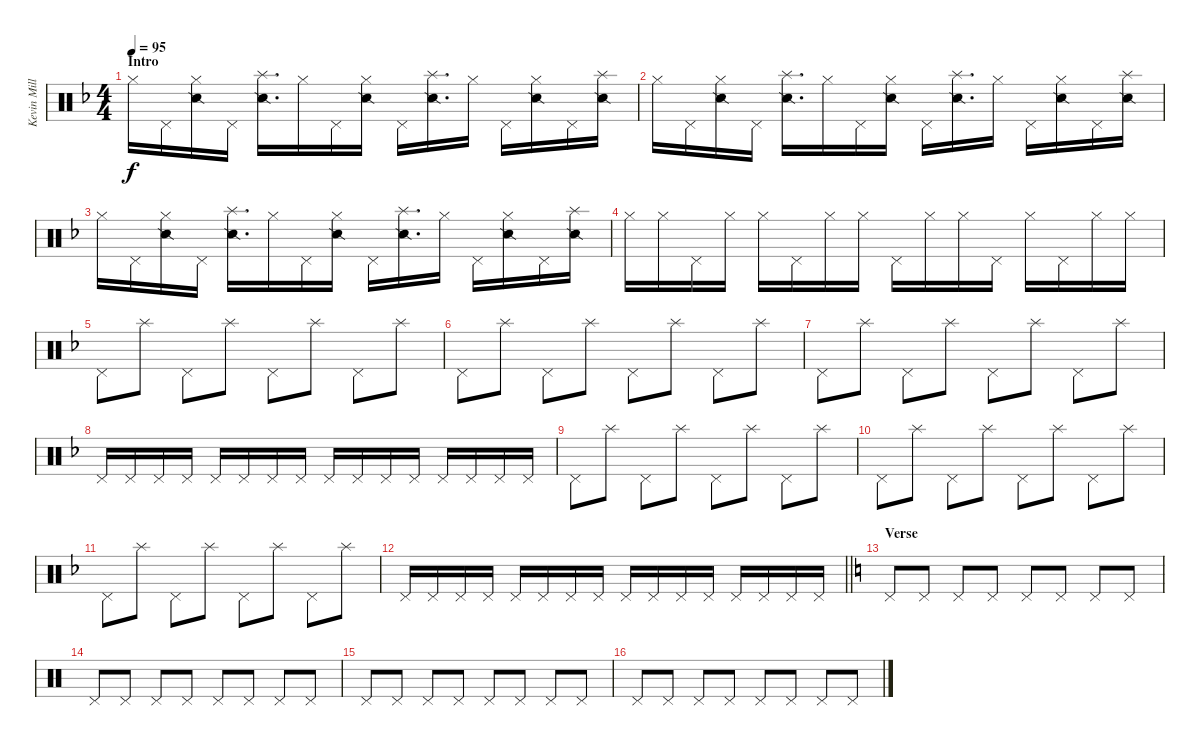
\track ("Kevin Miller (Drums)" "Kevin Mill") {instrument percussion}
\staff {score}
\articulation defaults
\ts (4 4)
\section ("" "Intro")
\tempo 95
\clef neutral
\ks f "Hi-Hat (closed)".16{dy f} "Pedal Hi-Hat (hit)".16
("Hi-Hat (closed)" "Snare (side stick) 2").16 "Pedal Hi-Hat (hit)".16 ("Splash (hit)" "Snare (side stick) 2").16{d} "Hi-Hat (closed)".16 "Pedal Hi-Hat (hit)".16 ("Hi-Hat (closed)" "Snare (side stick) 2").16 "Pedal Hi-Hat (hit)".16 ("Splash (hit)" "Snare (side stick) 2").16{d} "Hi-Hat (closed)".16 "Pedal Hi-Hat (hit)".16 ("Hi-Hat (closed)" "Snare (side stick) 2").16 "Pedal Hi-Hat (hit)".16 ("Splash (hit)" "Snare (side stick) 2").16 |
"Hi-Hat (closed)".16 "Pedal Hi-Hat (hit)".16 ("Hi-Hat (closed)" "Snare (side stick) 2").16 "Pedal Hi-Hat (hit)".16 ("Splash (hit)" "Snare (side stick) 2").16{d} "Hi-Hat (closed)".16 "Pedal Hi-Hat (hit)".16 ("Hi-Hat (closed)" "Snare (side stick) 2").16 "Pedal Hi-Hat (hit)".16 ("Splash (hit)" "Snare (side stick) 2").16{d} "Hi-Hat (closed)".16 "Pedal Hi-Hat (hit)".16 ("Hi-Hat (closed)" "Snare (side stick) 2").16 "Pedal Hi-Hat (hit)".16 ("Splash (hit)" "Snare (side stick) 2").16 |
"Hi-Hat (closed)".16 "Pedal Hi-Hat (hit)".16 ("Hi-Hat (closed)" "Snare (side stick) 2").16 "Pedal Hi-Hat (hit)".16 ("Splash (hit)" "Snare (side stick) 2").16{d} "Hi-Hat (closed)".16 "Pedal Hi-Hat (hit)".16 ("Hi-Hat (closed)" "Snare (side stick) 2").16 "Pedal Hi-Hat (hit)".16 ("Splash (hit)" "Snare (side stick) 2").16{d} "Hi-Hat (closed)".16 "Pedal Hi-Hat (hit)".16 ("Hi-Hat (closed)" "Snare (side stick) 2").16 "Pedal Hi-Hat (hit)".16 ("Splash (hit)" "Snare (side stick) 2").16 |
"Hi-Hat (closed)".16 "Hi-Hat (closed)".16 "Pedal Hi-Hat (hit)".16 "Hi-Hat (closed)".16 "Hi-Hat (closed)".16 "Pedal Hi-Hat (hit)".16 "Hi-Hat (closed)".16 "Hi-Hat (closed)".16 "Pedal Hi-Hat (hit)".16 "Hi-Hat (closed)".16 "Hi-Hat (closed)".16 "Pedal Hi-Hat (hit)".16 "Hi-Hat (closed)".16 "Pedal Hi-Hat (hit)".16 "Hi-Hat (closed)".16 "Hi-Hat (closed)".16 |
"Pedal Hi-Hat (hit)".8 "Splash (hit)".8 "Pedal Hi-Hat (hit)".8 "Splash (hit)".8 "Pedal Hi-Hat (hit)".8 "Splash (hit)".8 "Pedal Hi-Hat (hit)".8 "Splash (hit)".8 |
"Pedal Hi-Hat (hit)".8 "Splash (hit)".8 "Pedal Hi-Hat (hit)".8 "Splash (hit)".8 "Pedal Hi-Hat (hit)".8 "Splash (hit)".8 "Pedal Hi-Hat (hit)".8 "Splash (hit)".8 |
"Pedal Hi-Hat (hit)".8 "Splash (hit)".8 "Pedal Hi-Hat (hit)".8 "Splash (hit)".8 "Pedal Hi-Hat (hit)".8 "Splash (hit)".8 "Pedal Hi-Hat (hit)".8 "Splash (hit)".8 |
"Pedal Hi-Hat (hit)".16 "Pedal Hi-Hat (hit)".16 "Pedal Hi-Hat (hit)".16 "Pedal Hi-Hat (hit)".16 "Pedal Hi-Hat (hit)".16 "Pedal Hi-Hat (hit)".16 "Pedal Hi-Hat (hit)".16 "Pedal Hi-Hat (hit)".16 "Pedal Hi-Hat (hit)".16 "Pedal Hi-Hat (hit)".16 "Pedal Hi-Hat (hit)".16 "Pedal Hi-Hat (hit)".16 "Pedal Hi-Hat (hit)".16 "Pedal Hi-Hat (hit)".16 "Pedal Hi-Hat (hit)".16 "Pedal Hi-Hat (hit)".16 |
"Pedal Hi-Hat (hit)".8 "Splash (hit)".8 "Pedal Hi-Hat (hit)".8 "Splash (hit)".8 "Pedal Hi-Hat (hit)".8 "Splash (hit)".8 "Pedal Hi-Hat (hit)".8 "Splash (hit)".8 |
"Pedal Hi-Hat (hit)".8 "Splash (hit)".8 "Pedal Hi-Hat (hit)".8 "Splash (hit)".8 "Pedal Hi-Hat (hit)".8 "Splash (hit)".8 "Pedal Hi-Hat (hit)".8 "Splash (hit)".8 |
"Pedal Hi-Hat (hit)".8 "Splash (hit)".8 "Pedal Hi-Hat (hit)".8 "Splash (hit)".8 "Pedal Hi-Hat (hit)".8 "Splash (hit)".8 "Pedal Hi-Hat (hit)".8 "Splash (hit)".8 |
\barLineRight lightlight "Pedal Hi-Hat (hit)".16 "Pedal Hi-Hat (hit)".16 "Pedal Hi-Hat (hit)".16 "Pedal Hi-Hat (hit)".16 "Pedal Hi-Hat (hit)".16 "Pedal Hi-Hat (hit)".16 "Pedal Hi-Hat (hit)".16 "Pedal Hi-Hat (hit)".16 "Pedal Hi-Hat (hit)".16 "Pedal Hi-Hat (hit)".16 "Pedal Hi-Hat (hit)".16 "Pedal Hi-Hat (hit)".16 "Pedal Hi-Hat (hit)".16 "Pedal Hi-Hat (hit)".16 "Pedal Hi-Hat (hit)".16 "Pedal Hi-Hat (hit)".16
|
\section ("" "Verse")
\ks c "Pedal Hi-Hat (hit)".8 "Pedal Hi-Hat (hit)".8 "Pedal Hi-Hat (hit)".8 "Pedal Hi-Hat (hit)".8 "Pedal Hi-Hat (hit)".8 "Pedal Hi-Hat (hit)".8 "Pedal Hi-Hat (hit)".8 "Pedal Hi-Hat (hit)".8
|
"Pedal Hi-Hat (hit)".8 "Pedal Hi-Hat (hit)".8 "Pedal Hi-Hat (hit)".8 "Pedal Hi-Hat (hit)".8 "Pedal Hi-Hat (hit)".8 "Pedal Hi-Hat (hit)".8 "Pedal Hi-Hat (hit)".8 "Pedal Hi-Hat (hit)".8 |
"Pedal Hi-Hat (hit)".8 "Pedal Hi-Hat (hit)".8 "Pedal Hi-Hat (hit)".8 "Pedal Hi-Hat (hit)".8 "Pedal Hi-Hat (hit)".8 "Pedal Hi-Hat (hit)".8 "Pedal Hi-Hat (hit)".8 "Pedal Hi-Hat (hit)".8 |
"Pedal Hi-Hat (hit)".8 "Pedal Hi-Hat (hit)".8 "Pedal Hi-Hat (hit)".8 "Pedal Hi-Hat (hit)".8 "Pedal Hi-Hat (hit)".8 "Pedal Hi-Hat (hit)".8 "Pedal Hi-Hat (hit)".8 "Pedal Hi-Hat (hit)".8
